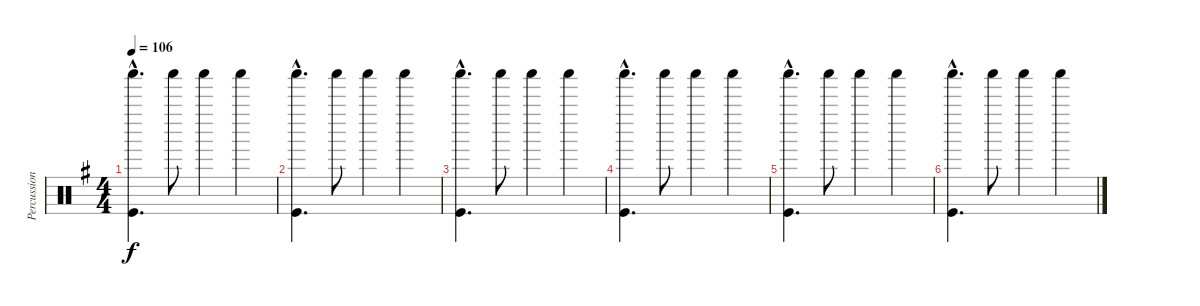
\track ("Percussion" "Percussion") {instrument percussion}
\staff {score}
\articulation defaults
\ts (4 4)
\tempo 106
\clef neutral
\ks g
("Shaker (hit)"{hac} "Kick (hit)"{hac}).4{d dy f} "Shaker (hit)".8 "Shaker (hit)".4 "Shaker (hit)".4 |
("Shaker (hit)"{hac} "Kick (hit)"{hac}).4{d} "Shaker (hit)".8 "Shaker (hit)".4 "Shaker (hit)".4 |
("Shaker (hit)"{hac} "Kick (hit)"{hac}).4{d} "Shaker (hit)".8 "Shaker (hit)".4 "Shaker (hit)".4 |
("Shaker (hit)"{hac} "Kick (hit)"{hac}).4{d} "Shaker (hit)".8 "Shaker (hit)".4 "Shaker (hit)".4 |
("Shaker (hit)"{hac} "Kick (hit)"{hac}).4{d} "Shaker (hit)".8 "Shaker (hit)".4 "Shaker (hit)".4 |
("Shaker (hit)"{hac} "Kick (hit)"{hac}).4{d} "Shaker (hit)".8 "Shaker (hit)".4 "Shaker (hit)".4
